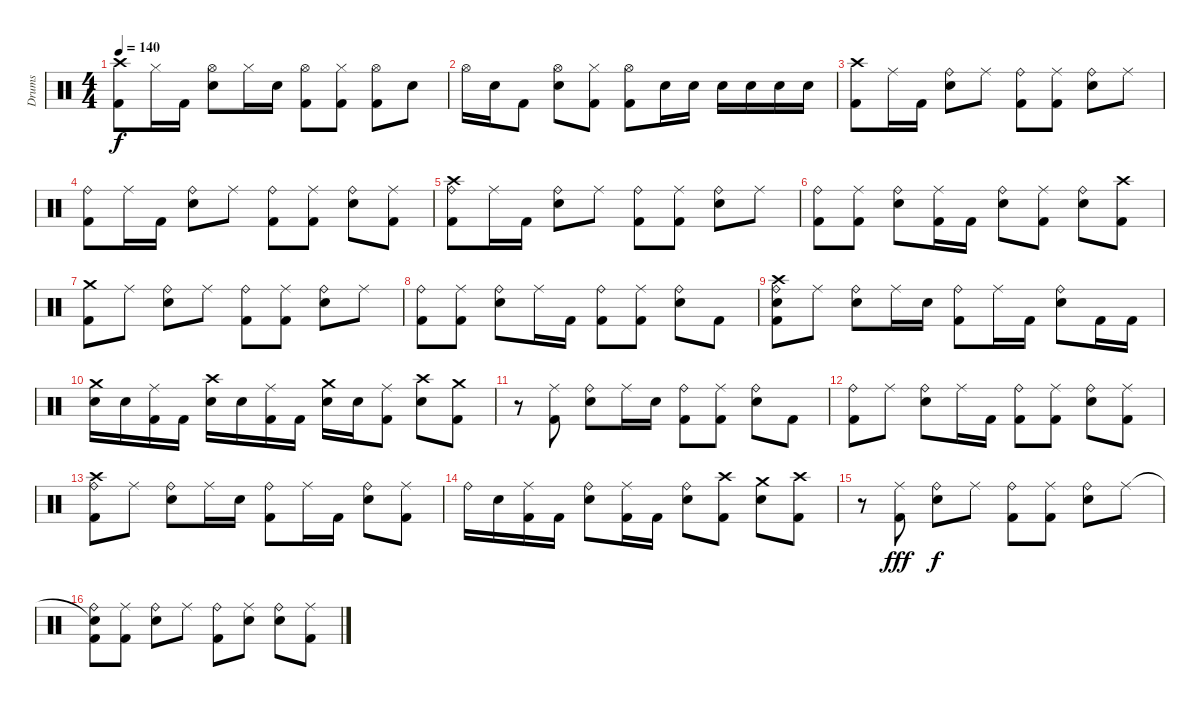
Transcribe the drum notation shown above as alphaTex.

\track ("Drums" "Drums") {instrument percussion}
\staff {score}
\articulation defaults
\ts (4 4)
\tempo 140
\clef neutral
\ks c
("Crash high (hit)" "Kick (hit) 2").8{dy f} "Hi-Hat (closed)".16 "Kick (hit) 2".16 ("Hi-Hat (open)" "Electric Snare (hit)").8 "Hi-Hat (closed)".16 "Electric Snare (hit)".16 ("Hi-Hat (open)" "Kick (hit) 2").8 ("Hi-Hat (closed)" "Kick (hit) 2").8 ("Hi-Hat (open)" "Kick (hit) 2").8 "Electric Snare (hit)".8 |
"Hi-Hat (open)".16 "Electric Snare (hit)".16 "Kick (hit) 2".8 ("Hi-Hat (open)" "Electric Snare (hit)").8 ("Hi-Hat (closed)" "Kick (hit) 2").8 ("Hi-Hat (open)" "Kick (hit) 2").8 "Electric Snare (hit)".16 "Electric Snare (hit)".16 "Electric Snare (hit)".16 "Electric Snare (hit)".16 "Electric Snare (hit)".16 "Electric Snare (hit)".16 |
("Crash high (hit)" "Kick (hit) 2").8 "Ride (middle)".16 "Kick (hit) 2".16 ("Ride (bell)" "Electric Snare (hit)").8 "Ride (middle)".8 ("Ride (bell)" "Kick (hit) 2").8 ("Ride (middle)" "Kick (hit) 2").8 ("Ride (bell)" "Electric Snare (hit)").8 "Ride (middle)".8 |
("Ride (bell)" "Kick (hit) 2").8 "Ride (middle)".16 "Kick (hit) 2".16 ("Ride (bell)" "Electric Snare (hit)").8 "Ride (middle)".8 ("Ride (bell)" "Kick (hit) 2").8 ("Ride (middle)" "Kick (hit) 2").8 ("Ride (bell)" "Electric Snare (hit)").8 ("Ride (middle)" "Kick (hit) 2").8 |
("Crash high (hit)" "Ride (bell)" "Kick (hit) 2").8 "Ride (middle)".16 "Kick (hit) 2".16 ("Ride (bell)" "Electric Snare (hit)").8 "Ride (middle)".8 ("Ride (bell)" "Kick (hit) 2").8 ("Ride (middle)" "Kick (hit) 2").8 ("Ride (bell)" "Electric Snare (hit)").8 "Ride (middle)".8 |
("Ride (bell)" "Kick (hit) 2").8 ("Ride (middle)" "Kick (hit) 2").8 ("Ride (bell)" "Electric Snare (hit)").8 ("Ride (middle)" "Kick (hit) 2").16 "Kick (hit) 2".16 ("Ride (bell)" "Electric Snare (hit)").8 ("Ride (middle)" "Kick (hit) 2").8 ("Ride (bell)" "Electric Snare (hit)").8 ("Crash high (hit)" "Kick (hit) 2").8 |
("Crash medium (hit)" "Kick (hit) 2").8 "Ride (middle)".8 ("Ride (bell)" "Electric Snare (hit)").8 "Ride (middle)".8 ("Ride (bell)" "Kick (hit) 2").8 ("Ride (middle)" "Kick (hit) 2").8 ("Ride (bell)" "Electric Snare (hit)").8 "Ride (middle)".8 |
("Ride (bell)" "Kick (hit) 2").8 ("Ride (middle)" "Kick (hit) 2").8 ("Ride (bell)" "Electric Snare (hit)").8 "Ride (middle)".16 "Kick (hit) 2".16 ("Ride (bell)" "Kick (hit) 2").8 ("Ride (middle)" "Kick (hit) 2").8 ("Ride (bell)" "Electric Snare (hit)").8 "Kick (hit) 2".8 |
("Crash high (hit)" "Ride (bell)" "Snare (hit)" "Kick (hit) 2").8 "Ride (middle)".8 ("Ride (bell)" "Electric Snare (hit)").8 "Ride (middle)".16 "Electric Snare (hit)".16 ("Ride (bell)" "Kick (hit) 2").8 "Ride (middle)".16 "Kick (hit) 2".16 ("Ride (bell)" "Electric Snare (hit)").8 "Kick (hit) 2".16 "Kick (hit) 2".16 |
("Crash medium (hit)" "Electric Snare (hit)").16 "Electric Snare (hit)".16 ("Ride (middle)" "Kick (hit) 2").16 "Kick (hit) 2".16 ("Crash high (hit)" "Electric Snare (hit)").16 "Electric Snare (hit)".16 ("Ride (middle)" "Kick (hit) 2").16 "Kick (hit) 2".16 ("Crash medium (hit)" "Electric Snare (hit)").16 "Electric Snare (hit)".16 ("Ride (middle)" "Kick (hit) 2").8 ("Crash high (hit)" "Electric Snare (hit)").8 ("Crash medium (hit)" "Kick (hit) 2").8 |
r.8 ("Ride (middle)" "Kick (hit) 2").8 ("Ride (bell)" "Electric Snare (hit)").8 "Ride (middle)".16 "Electric Snare (hit)".16 ("Ride (bell)" "Kick (hit) 2").8 ("Ride (middle)" "Kick (hit) 2").8 ("Ride (bell)" "Electric Snare (hit)").8 "Kick (hit) 2".8 |
("Ride (bell)" "Kick (hit) 2").8 "Ride (middle)".8 ("Ride (bell)" "Electric Snare (hit)").8 "Ride (middle)".16 "Kick (hit) 2".16 ("Ride (bell)" "Kick (hit) 2").8 ("Ride (middle)" "Kick (hit) 2").8 ("Ride (bell)" "Electric Snare (hit)").8 ("Ride (middle)" "Kick (hit) 2").8 |
("Crash high (hit)" "Ride (bell)" "Kick (hit) 2").8 "Ride (middle)".8 ("Ride (bell)" "Electric Snare (hit)").8 "Ride (middle)".16 "Electric Snare (hit)".16 ("Ride (bell)" "Kick (hit) 2").8 "Ride (middle)".16 "Kick (hit) 2".16 ("Ride (bell)" "Electric Snare (hit)").8 ("Ride (middle)" "Kick (hit) 2").8 |
"Ride (bell)".16 "Electric Snare (hit)".16 ("Ride (middle)" "Kick (hit) 2").16 "Kick (hit) 2".16 ("Ride (bell)" "Electric Snare (hit)").8 ("Ride (middle)" "Kick (hit) 2").16 "Kick (hit) 2".16 ("Ride (bell)" "Electric Snare (hit)").8 ("Crash high (hit)" "Kick (hit) 2").8 ("Crash medium (hit)" "Electric Snare (hit)").8 ("Crash high (hit)" "Kick (hit) 2").8 |
r.8 ("Ride (middle)" "Kick (hit) 2").8{dy fff} ("Ride (bell)" "Electric Snare (hit)").8{dy f} "Ride (middle)".8 ("Ride (bell)" "Kick (hit) 2").8 ("Ride (middle)" "Kick (hit) 2").8 ("Ride (bell)" "Electric Snare (hit)").8 "Ride (middle)".8 |
("Snare (hit)"{t} "Ride (bell)" "Kick (hit) 2").8 ("Ride (middle)" "Kick (hit) 2").8 ("Ride (bell)" "Electric Snare (hit)").8 "Ride (middle)".8 ("Ride (bell)" "Kick (hit) 2").8 ("Ride (middle)" "Electric Snare (hit)").8 ("Ride (bell)" "Electric Snare (hit)").8 ("Ride (middle)" "Kick (hit) 2").8
